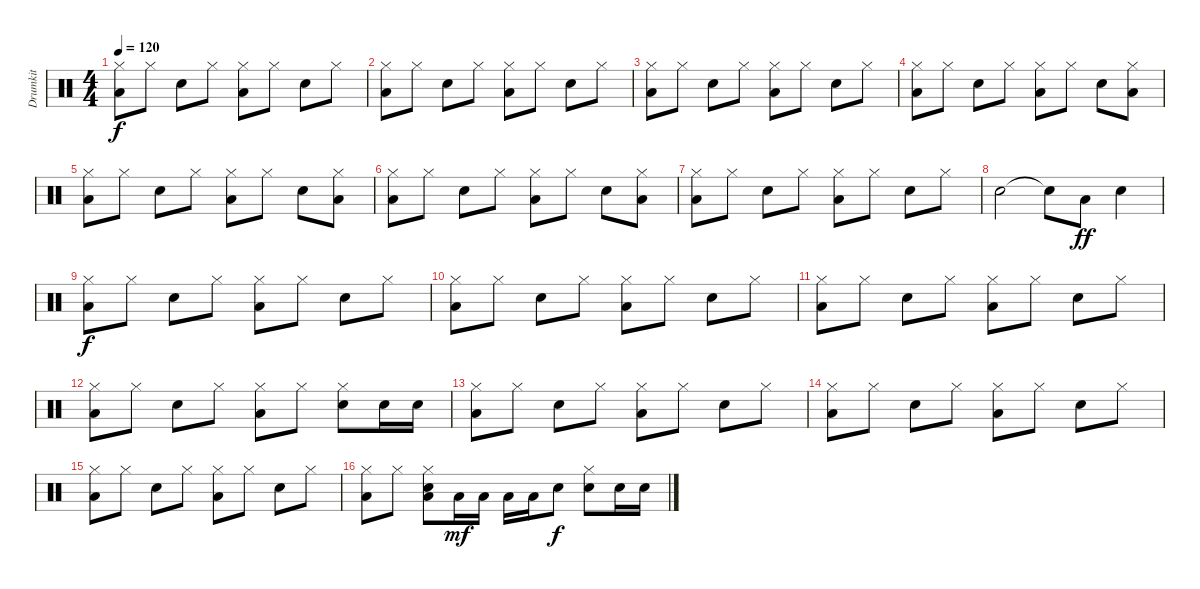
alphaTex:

\track ("Drumkit" "Drumkit") {instrument percussion}
\staff {score}
\articulation defaults
\ts (4 4)
\tempo 120
\clef neutral
\ks c
("Hi-Hat (closed)" "Low Floor Tom (hit)").8{dy f} "Hi-Hat (closed)".8 "Snare (hit) 2".8 "Hi-Hat (closed)".8 ("Hi-Hat (closed)" "Low Floor Tom (hit)").8 "Hi-Hat (closed)".8 "Snare (hit) 2".8 "Hi-Hat (closed)".8 |
("Hi-Hat (closed)" "Low Floor Tom (hit)").8 "Hi-Hat (closed)".8 "Snare (hit) 2".8 "Hi-Hat (closed)".8 ("Hi-Hat (closed)" "Low Floor Tom (hit)").8 "Hi-Hat (closed)".8 "Snare (hit) 2".8 "Hi-Hat (closed)".8 |
("Hi-Hat (closed)" "Low Floor Tom (hit)").8 "Hi-Hat (closed)".8 "Snare (hit) 2".8 "Hi-Hat (closed)".8 ("Hi-Hat (closed)" "Low Floor Tom (hit)").8 "Hi-Hat (closed)".8 "Snare (hit) 2".8 "Hi-Hat (closed)".8 |
("Hi-Hat (closed)" "Low Floor Tom (hit)").8 "Hi-Hat (closed)".8 "Snare (hit) 2".8 "Hi-Hat (closed)".8 ("Hi-Hat (closed)" "Low Floor Tom (hit)").8 "Hi-Hat (closed)".8 "Snare (hit) 2".8 ("Hi-Hat (closed)" "Low Floor Tom (hit)").8 |
("Hi-Hat (closed)" "Low Floor Tom (hit)").8 "Hi-Hat (closed)".8 "Snare (hit) 2".8 "Hi-Hat (closed)".8 ("Hi-Hat (closed)" "Low Floor Tom (hit)").8 "Hi-Hat (closed)".8 "Snare (hit) 2".8 ("Hi-Hat (closed)" "Low Floor Tom (hit)").8 |
("Hi-Hat (closed)" "Low Floor Tom (hit)").8 "Hi-Hat (closed)".8 "Snare (hit) 2".8 "Hi-Hat (closed)".8 ("Hi-Hat (closed)" "Low Floor Tom (hit)").8 "Hi-Hat (closed)".8 "Snare (hit) 2".8 ("Hi-Hat (closed)" "Low Floor Tom (hit)").8 |
("Hi-Hat (closed)" "Low Floor Tom (hit)").8 "Hi-Hat (closed)".8 "Snare (hit) 2".8 "Hi-Hat (closed)".8 ("Hi-Hat (closed)" "Low Floor Tom (hit)").8 "Hi-Hat (closed)".8 "Snare (hit) 2".8 "Hi-Hat (closed)".8 |
"Snare (hit) 2".2 "Snare (hit) 2"{t}.8 "Low Floor Tom (hit)".8{dy ff} "Snare (hit) 2".4 |
("Hi-Hat (closed)" "Low Floor Tom (hit)").8{dy f} "Hi-Hat (closed)".8 "Snare (hit) 2".8 "Hi-Hat (closed)".8 ("Hi-Hat (closed)" "Low Floor Tom (hit)").8 "Hi-Hat (closed)".8 "Snare (hit) 2".8 "Hi-Hat (closed)".8 |
("Hi-Hat (closed)" "Low Floor Tom (hit)").8 "Hi-Hat (closed)".8 "Snare (hit) 2".8 "Hi-Hat (closed)".8 ("Hi-Hat (closed)" "Low Floor Tom (hit)").8 "Hi-Hat (closed)".8 "Snare (hit) 2".8 "Hi-Hat (closed)".8 |
("Hi-Hat (closed)" "Low Floor Tom (hit)").8 "Hi-Hat (closed)".8 "Snare (hit) 2".8 "Hi-Hat (closed)".8 ("Hi-Hat (closed)" "Low Floor Tom (hit)").8 "Hi-Hat (closed)".8 "Snare (hit) 2".8 "Hi-Hat (closed)".8 |
("Hi-Hat (closed)" "Low Floor Tom (hit)").8 "Hi-Hat (closed)".8 "Snare (hit) 2".8 "Hi-Hat (closed)".8 ("Hi-Hat (closed)" "Low Floor Tom (hit)").8 "Hi-Hat (closed)".8 ("Snare (hit) 2" "Hi-Hat (closed)").8 "Snare (hit) 2".16 "Snare (hit) 2".16 |
("Hi-Hat (closed)" "Low Floor Tom (hit)").8 "Hi-Hat (closed)".8 "Snare (hit) 2".8 "Hi-Hat (closed)".8 ("Hi-Hat (closed)" "Low Floor Tom (hit)").8 "Hi-Hat (closed)".8 "Snare (hit) 2".8 "Hi-Hat (closed)".8 |
("Hi-Hat (closed)" "Low Floor Tom (hit)").8 "Hi-Hat (closed)".8 "Snare (hit) 2".8 "Hi-Hat (closed)".8 ("Hi-Hat (closed)" "Low Floor Tom (hit)").8 "Hi-Hat (closed)".8 "Snare (hit) 2".8 "Hi-Hat (closed)".8 |
("Hi-Hat (closed)" "Low Floor Tom (hit)").8 "Hi-Hat (closed)".8 "Snare (hit) 2".8 "Hi-Hat (closed)".8 ("Hi-Hat (closed)" "Low Floor Tom (hit)").8 "Hi-Hat (closed)".8 "Snare (hit) 2".8 "Hi-Hat (closed)".8 |
("Hi-Hat (closed)" "Low Floor Tom (hit)").8 "Hi-Hat (closed)".8 ("Snare (hit) 2" "Hi-Hat (closed)" "Low Floor Tom (hit)").8 "Low Tom (hit)".16{dy mf} "Low Tom (hit)".16 "Low Tom (hit)".16 "Low Tom (hit)".16 "Snare (hit) 2".8{dy f} ("Hi-Hat (closed)" "Snare (hit) 2").8 "Snare (hit) 2".16 "Snare (hit) 2".16
